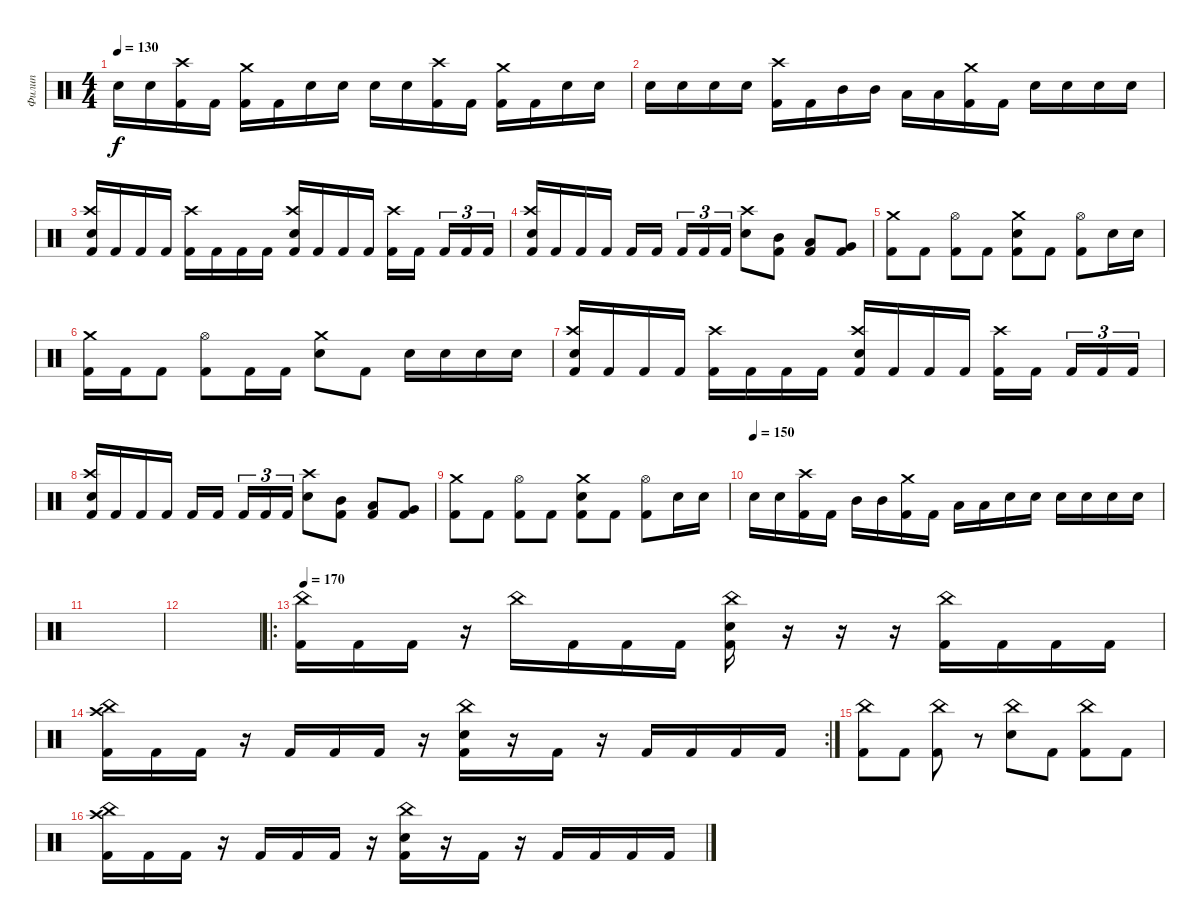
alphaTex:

\track ("Филип" "Филип") {instrument percussion}
\staff {score}
\articulation defaults
\ts (4 4)
\tempo 130
\clef neutral
\ks c "Electric Snare (hit)".16{dy f} "Electric Snare (hit)".16
("Crash high (hit)" "Kick (hit) 2").16 "Kick (hit) 2".16 ("Crash medium (hit)" "Kick (hit) 2").16 "Kick (hit) 2".16 "Electric Snare (hit)".16 "Electric Snare (hit)".16 "Electric Snare (hit)".16 "Electric Snare (hit)".16 ("Crash high (hit)" "Kick (hit) 2").16 "Kick (hit) 2".16 ("Crash medium (hit)" "Kick (hit) 2").16 "Kick (hit) 2".16 "Electric Snare (hit)".16 "Electric Snare (hit)".16 |
"Electric Snare (hit)".16 "Electric Snare (hit)".16 "Electric Snare (hit)".16 "Electric Snare (hit)".16 ("Crash high (hit)" "Kick (hit) 2").16 "Kick (hit) 2".16 "Mid Tom (hit)".16 "Mid Tom (hit)".16 "Low Tom (hit)".16 "Low Tom (hit)".16 ("Crash medium (hit)" "Kick (hit) 2").16 "Kick (hit) 2".16 "Electric Snare (hit)".16 "Electric Snare (hit)".16 "Electric Snare (hit)".16 "Electric Snare (hit)".16 |
("Crash high (hit)" "Electric Snare (hit)" "Kick (hit) 2").16 "Kick (hit) 2".16 "Kick (hit) 2".16 "Kick (hit) 2".16 ("Crash high (hit)" "Kick (hit) 2").16 "Kick (hit) 2".16 "Kick (hit) 2".16 "Kick (hit) 2".16 ("Crash high (hit)" "Electric Snare (hit)" "Kick (hit) 2").16 "Kick (hit) 2".16 "Kick (hit) 2".16 "Kick (hit) 2".16 ("Crash high (hit)" "Kick (hit) 2").16 "Kick (hit) 2".16{beam splitsecondary} "Kick (hit) 2".16{tu (3 2)} "Kick (hit) 2".16{tu (3 2)} "Kick (hit) 2".16{tu (3 2)} |
("Crash high (hit)" "Electric Snare (hit)" "Kick (hit) 2").16 "Kick (hit) 2".16 "Kick (hit) 2".16 "Kick (hit) 2".16 "Kick (hit) 2".16 "Kick (hit) 2".16{beam splitsecondary} "Kick (hit) 2".16{tu (3 2)} "Kick (hit) 2".16{tu (3 2)} "Kick (hit) 2".16{tu (3 2)} ("Crash high (hit)" "Electric Snare (hit)").8 ("Mid Tom (hit)" "Kick (hit) 2").8 ("Low Tom (hit)" "Kick (hit) 2").8 ("Very Low Tom (hit)" "Kick (hit) 2").8 |
("Crash medium (hit)" "Kick (hit) 2").8 "Kick (hit) 2".8 ("Hi-Hat (open)" "Kick (hit) 2").8 "Kick (hit) 2".8 ("Crash medium (hit)" "Electric Snare (hit)" "Kick (hit) 2").8 "Kick (hit) 2".8 ("Hi-Hat (open)" "Kick (hit) 2").8 "Electric Snare (hit)".16 "Electric Snare (hit)".16 |
("Crash medium (hit)" "Kick (hit) 2").16 "Kick (hit) 2".16 "Kick (hit) 2".8 ("Hi-Hat (open)" "Kick (hit) 2").8 "Kick (hit) 2".16 "Kick (hit) 2".16 ("Crash medium (hit)" "Electric Snare (hit)").8 "Kick (hit) 2".8 "Electric Snare (hit)".16 "Electric Snare (hit)".16 "Electric Snare (hit)".16 "Electric Snare (hit)".16 |
("Crash high (hit)" "Electric Snare (hit)" "Kick (hit) 2").16 "Kick (hit) 2".16 "Kick (hit) 2".16 "Kick (hit) 2".16 ("Crash high (hit)" "Kick (hit) 2").16 "Kick (hit) 2".16 "Kick (hit) 2".16 "Kick (hit) 2".16 ("Crash high (hit)" "Electric Snare (hit)" "Kick (hit) 2").16 "Kick (hit) 2".16 "Kick (hit) 2".16 "Kick (hit) 2".16 ("Crash high (hit)" "Kick (hit) 2").16 "Kick (hit) 2".16{beam splitsecondary} "Kick (hit) 2".16{tu (3 2)} "Kick (hit) 2".16{tu (3 2)} "Kick (hit) 2".16{tu (3 2)} |
("Crash high (hit)" "Electric Snare (hit)" "Kick (hit) 2").16 "Kick (hit) 2".16 "Kick (hit) 2".16 "Kick (hit) 2".16 "Kick (hit) 2".16 "Kick (hit) 2".16{beam splitsecondary} "Kick (hit) 2".16{tu (3 2)} "Kick (hit) 2".16{tu (3 2)} "Kick (hit) 2".16{tu (3 2)} ("Crash high (hit)" "Electric Snare (hit)").8 ("Mid Tom (hit)" "Kick (hit) 2").8 ("Low Tom (hit)" "Kick (hit) 2").8 ("Very Low Tom (hit)" "Kick (hit) 2").8 |
("Crash medium (hit)" "Kick (hit) 2").8 "Kick (hit) 2".8 ("Hi-Hat (open)" "Kick (hit) 2").8 "Kick (hit) 2".8 ("Crash medium (hit)" "Electric Snare (hit)" "Kick (hit) 2").8 "Kick (hit) 2".8 ("Hi-Hat (open)" "Kick (hit) 2").8 "Electric Snare (hit)".16 "Electric Snare (hit)".16 |
\tempo (150)
"Electric Snare (hit)".16 "Electric Snare (hit)".16 ("Crash high (hit)" "Kick (hit) 2").16 "Kick (hit) 2".16 "Mid Tom (hit)".16 "Mid Tom (hit)".16 ("Crash medium (hit)" "Kick (hit) 2").16 "Kick (hit) 2".16 "Low Tom (hit)".16 "Low Tom (hit)".16 "Electric Snare (hit)".16 "Electric Snare (hit)".16 "Electric Snare (hit)".16 "Electric Snare (hit)".16 "Electric Snare (hit)".16 "Electric Snare (hit)".16 |
|
|
\ro
\tempo 170
("China (hit)" "Kick (hit) 2").16 "Kick (hit) 2".16 "Kick (hit) 2".16 r.16 "China (hit)".16 "Kick (hit) 2".16 "Kick (hit) 2".16 "Kick (hit) 2".16 ("China (hit)" "Electric Snare (hit)" "Kick (hit) 2").16 r.16 r.16 r.16 ("China (hit)" "Kick (hit) 2").16 "Kick (hit) 2".16 "Kick (hit) 2".16 "Kick (hit) 2".16 |
\rc 2
("China (hit)" "Crash high (hit)" "Kick (hit) 2").16 "Kick (hit) 2".16 "Kick (hit) 2".16 r.16 "Kick (hit) 2".16 "Kick (hit) 2".16 "Kick (hit) 2".16 r.16 ("China (hit)" "Electric Snare (hit)" "Kick (hit) 2").16 r.16 "Kick (hit) 2".16 r.16 "Kick (hit) 2".16 "Kick (hit) 2".16 "Kick (hit) 2".16 "Kick (hit) 2".16 |
("China (hit)" "Kick (hit) 2").8 "Kick (hit) 2".8 ("China (hit)" "Kick (hit) 2").8 r.8 ("China (hit)" "Electric Snare (hit)").8 "Kick (hit) 2".8 ("China (hit)" "Kick (hit) 2").8 "Kick (hit) 2".8 |
("China (hit)" "Crash high (hit)" "Kick (hit) 2").16 "Kick (hit) 2".16 "Kick (hit) 2".16 r.16 "Kick (hit) 2".16 "Kick (hit) 2".16 "Kick (hit) 2".16 r.16 ("China (hit)" "Electric Snare (hit)" "Kick (hit) 2").16 r.16 "Kick (hit) 2".16 r.16 "Kick (hit) 2".16 "Kick (hit) 2".16 "Kick (hit) 2".16 "Kick (hit) 2".16
